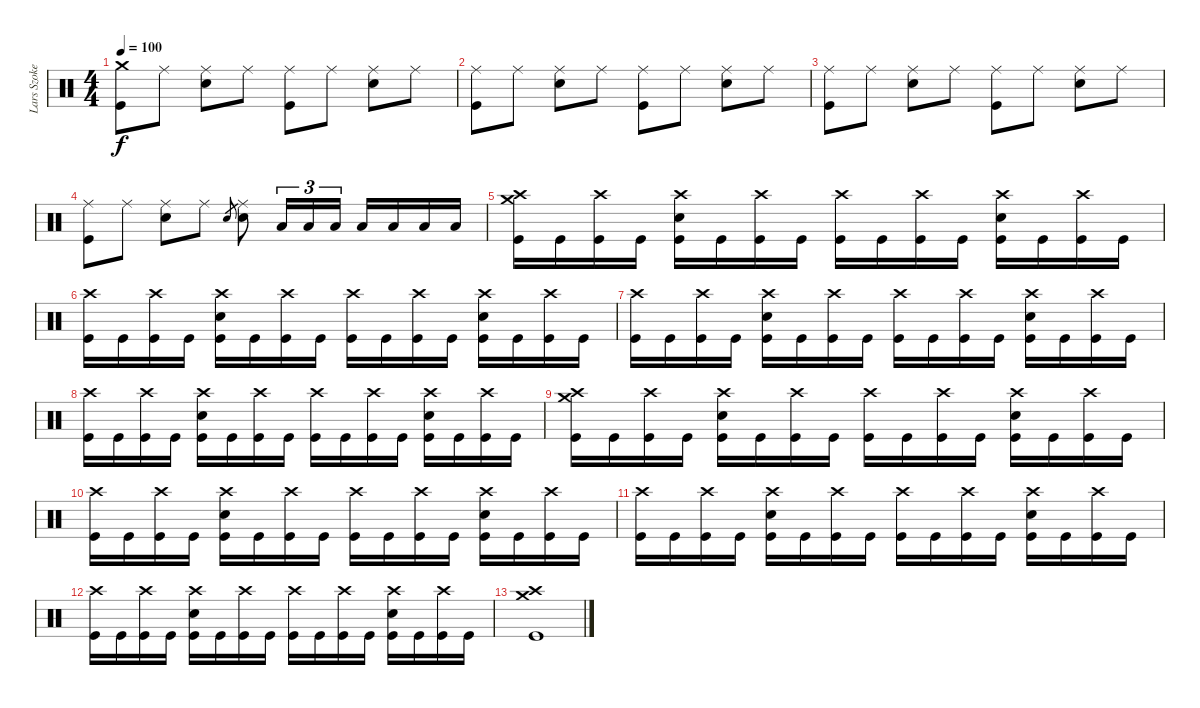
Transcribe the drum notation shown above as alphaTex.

\track ("Lars Szoke" "Lars Szoke") {instrument percussion}
\staff {score}
\articulation defaults
\ts (4 4)
\tempo 100
\clef neutral
\ks c
("Crash medium (hit)" "Kick (hit)").8{dy f} "Ride (middle)".8 ("Ride (middle)" "Electric Snare (hit)").8 "Ride (middle)".8 ("Ride (middle)" "Kick (hit)").8 "Ride (middle)".8 ("Ride (middle)" "Electric Snare (hit)").8 "Ride (middle)".8 |
("Ride (middle)" "Kick (hit)").8 "Ride (middle)".8 ("Ride (middle)" "Electric Snare (hit)").8 "Ride (middle)".8 ("Ride (middle)" "Kick (hit)").8 "Ride (middle)".8 ("Ride (middle)" "Electric Snare (hit)").8 "Ride (middle)".8 |
("Ride (middle)" "Kick (hit)").8 "Ride (middle)".8 ("Ride (middle)" "Electric Snare (hit)").8 "Ride (middle)".8 ("Ride (middle)" "Kick (hit)").8 "Ride (middle)".8 ("Ride (middle)" "Electric Snare (hit)").8 "Ride (middle)".8 |
("Ride (middle)" "Kick (hit)").8 "Ride (middle)".8 ("Ride (middle)" "Electric Snare (hit)").8 "Ride (middle)".8 "Electric Snare (hit)".8{gr} ("Ride (middle)" "Electric Snare (hit)").8 "Low Tom (hit)".16{tu (3 2)} "Low Tom (hit)".16{tu (3 2)} "Low Tom (hit)".16{tu (3 2)} "Low Tom (hit)".16 "Low Tom (hit)".16 "Low Tom (hit)".16 "Low Tom (hit)".16 |
("Crash high (hit)" "Crash medium (hit)" "Kick (hit)").16 "Kick (hit)".16 ("Crash high (hit)" "Kick (hit)").16 "Kick (hit)".16 ("Crash high (hit)" "Electric Snare (hit)" "Kick (hit)").16 "Kick (hit)".16 ("Crash high (hit)" "Kick (hit)").16 "Kick (hit)".16 ("Crash high (hit)" "Kick (hit)").16 "Kick (hit)".16 ("Crash high (hit)" "Kick (hit)").16 "Kick (hit)".16 ("Crash high (hit)" "Electric Snare (hit)" "Kick (hit)").16 "Kick (hit)".16 ("Crash high (hit)" "Kick (hit)").16 "Kick (hit)".16 |
("Crash high (hit)" "Kick (hit)").16 "Kick (hit)".16 ("Crash high (hit)" "Kick (hit)").16 "Kick (hit)".16 ("Crash high (hit)" "Electric Snare (hit)" "Kick (hit)").16 "Kick (hit)".16 ("Crash high (hit)" "Kick (hit)").16 "Kick (hit)".16 ("Crash high (hit)" "Kick (hit)").16 "Kick (hit)".16 ("Crash high (hit)" "Kick (hit)").16 "Kick (hit)".16 ("Crash high (hit)" "Electric Snare (hit)" "Kick (hit)").16 "Kick (hit)".16 ("Crash high (hit)" "Kick (hit)").16 "Kick (hit)".16 |
("Crash high (hit)" "Kick (hit)").16 "Kick (hit)".16 ("Crash high (hit)" "Kick (hit)").16 "Kick (hit)".16 ("Crash high (hit)" "Electric Snare (hit)" "Kick (hit)").16 "Kick (hit)".16 ("Crash high (hit)" "Kick (hit)").16 "Kick (hit)".16 ("Crash high (hit)" "Kick (hit)").16 "Kick (hit)".16 ("Crash high (hit)" "Kick (hit)").16 "Kick (hit)".16 ("Crash high (hit)" "Electric Snare (hit)" "Kick (hit)").16 "Kick (hit)".16 ("Crash high (hit)" "Kick (hit)").16 "Kick (hit)".16 |
("Crash high (hit)" "Kick (hit)").16 "Kick (hit)".16 ("Crash high (hit)" "Kick (hit)").16 "Kick (hit)".16 ("Crash high (hit)" "Electric Snare (hit)" "Kick (hit)").16 "Kick (hit)".16 ("Crash high (hit)" "Kick (hit)").16 "Kick (hit)".16 ("Crash high (hit)" "Kick (hit)").16 "Kick (hit)".16 ("Crash high (hit)" "Kick (hit)").16 "Kick (hit)".16 ("Crash high (hit)" "Electric Snare (hit)" "Kick (hit)").16 "Kick (hit)".16 ("Crash high (hit)" "Kick (hit)").16 "Kick (hit)".16 |
("Crash high (hit)" "Crash medium (hit)" "Kick (hit)").16 "Kick (hit)".16 ("Crash high (hit)" "Kick (hit)").16 "Kick (hit)".16 ("Crash high (hit)" "Electric Snare (hit)" "Kick (hit)").16 "Kick (hit)".16 ("Crash high (hit)" "Kick (hit)").16 "Kick (hit)".16 ("Crash high (hit)" "Kick (hit)").16 "Kick (hit)".16 ("Crash high (hit)" "Kick (hit)").16 "Kick (hit)".16 ("Crash high (hit)" "Electric Snare (hit)" "Kick (hit)").16 "Kick (hit)".16 ("Crash high (hit)" "Kick (hit)").16 "Kick (hit)".16 |
("Crash high (hit)" "Kick (hit)").16 "Kick (hit)".16 ("Crash high (hit)" "Kick (hit)").16 "Kick (hit)".16 ("Crash high (hit)" "Electric Snare (hit)" "Kick (hit)").16 "Kick (hit)".16 ("Crash high (hit)" "Kick (hit)").16 "Kick (hit)".16 ("Crash high (hit)" "Kick (hit)").16 "Kick (hit)".16 ("Crash high (hit)" "Kick (hit)").16 "Kick (hit)".16 ("Crash high (hit)" "Electric Snare (hit)" "Kick (hit)").16 "Kick (hit)".16 ("Crash high (hit)" "Kick (hit)").16 "Kick (hit)".16 |
("Crash high (hit)" "Kick (hit)").16 "Kick (hit)".16 ("Crash high (hit)" "Kick (hit)").16 "Kick (hit)".16 ("Crash high (hit)" "Electric Snare (hit)" "Kick (hit)").16 "Kick (hit)".16 ("Crash high (hit)" "Kick (hit)").16 "Kick (hit)".16 ("Crash high (hit)" "Kick (hit)").16 "Kick (hit)".16 ("Crash high (hit)" "Kick (hit)").16 "Kick (hit)".16 ("Crash high (hit)" "Electric Snare (hit)" "Kick (hit)").16 "Kick (hit)".16 ("Crash high (hit)" "Kick (hit)").16 "Kick (hit)".16 |
("Crash high (hit)" "Kick (hit)").16 "Kick (hit)".16 ("Crash high (hit)" "Kick (hit)").16 "Kick (hit)".16 ("Crash high (hit)" "Electric Snare (hit)" "Kick (hit)").16 "Kick (hit)".16 ("Crash high (hit)" "Kick (hit)").16 "Kick (hit)".16 ("Crash high (hit)" "Kick (hit)").16 "Kick (hit)".16 ("Crash high (hit)" "Kick (hit)").16 "Kick (hit)".16 ("Crash high (hit)" "Electric Snare (hit)" "Kick (hit)").16 "Kick (hit)".16 ("Crash high (hit)" "Kick (hit)").16 "Kick (hit)".16 |
("Crash high (hit)" "Crash medium (hit)" "Kick (hit)").1
